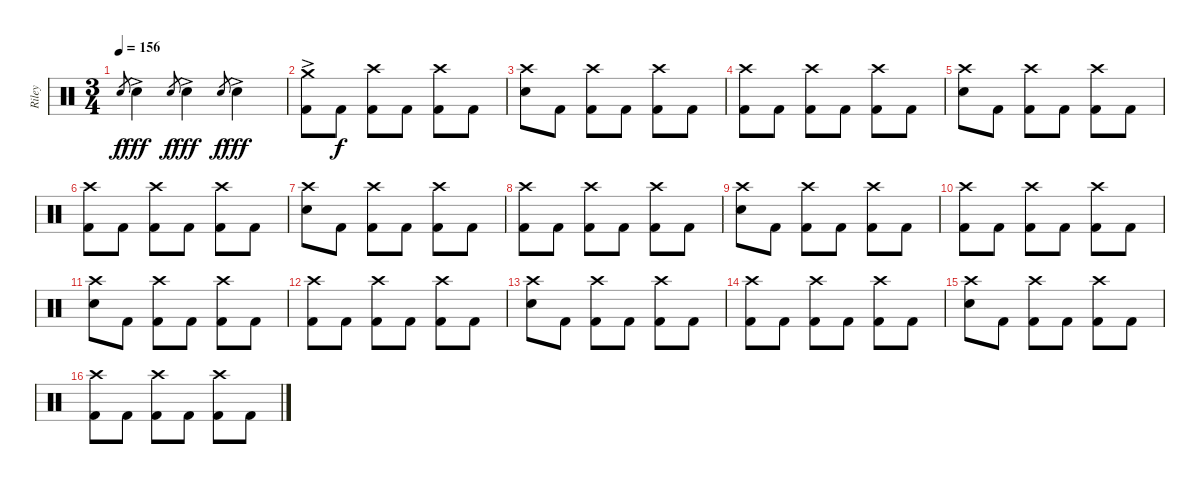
\track ("Riley" "Riley") {instrument percussion}
\staff {score}
\articulation defaults
\ts (3 4)
\tempo 156
\clef neutral
\ks c "Electric Snare (hit)".8{gr dy f} "Electric Snare (hit)"{ac}.4{dy fff} "Electric Snare (hit)".8{gr dy f} "Electric Snare (hit)"{ac}.4{dy fff} "Electric Snare (hit)".8{gr dy f} "Electric Snare (hit)"{ac}.4{dy fff}
|
("Crash medium (hit)"{ac} "Kick (hit) 2").8 "Kick (hit) 2".8{dy f} ("Crash high (hit)" "Kick (hit) 2").8 "Kick (hit) 2".8 ("Crash high (hit)" "Kick (hit) 2").8 "Kick (hit) 2".8 |
("Crash high (hit)" "Electric Snare (hit)").8 "Kick (hit) 2".8 ("Crash high (hit)" "Kick (hit) 2").8 "Kick (hit) 2".8 ("Crash high (hit)" "Kick (hit) 2").8 "Kick (hit) 2".8 |
("Crash high (hit)" "Kick (hit) 2").8 "Kick (hit) 2".8 ("Crash high (hit)" "Kick (hit) 2").8 "Kick (hit) 2".8 ("Crash high (hit)" "Kick (hit) 2").8 "Kick (hit) 2".8 |
("Crash high (hit)" "Electric Snare (hit)").8 "Kick (hit) 2".8 ("Crash high (hit)" "Kick (hit) 2").8 "Kick (hit) 2".8 ("Crash high (hit)" "Kick (hit) 2").8 "Kick (hit) 2".8 |
("Crash high (hit)" "Kick (hit) 2").8 "Kick (hit) 2".8 ("Crash high (hit)" "Kick (hit) 2").8 "Kick (hit) 2".8 ("Crash high (hit)" "Kick (hit) 2").8 "Kick (hit) 2".8 |
("Crash high (hit)" "Electric Snare (hit)").8 "Kick (hit) 2".8 ("Crash high (hit)" "Kick (hit) 2").8 "Kick (hit) 2".8 ("Crash high (hit)" "Kick (hit) 2").8 "Kick (hit) 2".8 |
("Crash high (hit)" "Kick (hit) 2").8 "Kick (hit) 2".8 ("Crash high (hit)" "Kick (hit) 2").8 "Kick (hit) 2".8 ("Crash high (hit)" "Kick (hit) 2").8 "Kick (hit) 2".8 |
("Crash high (hit)" "Electric Snare (hit)").8 "Kick (hit) 2".8 ("Crash high (hit)" "Kick (hit) 2").8 "Kick (hit) 2".8 ("Crash high (hit)" "Kick (hit) 2").8 "Kick (hit) 2".8 |
("Crash high (hit)" "Kick (hit) 2").8 "Kick (hit) 2".8 ("Crash high (hit)" "Kick (hit) 2").8 "Kick (hit) 2".8 ("Crash high (hit)" "Kick (hit) 2").8 "Kick (hit) 2".8 |
("Crash high (hit)" "Electric Snare (hit)").8 "Kick (hit) 2".8 ("Crash high (hit)" "Kick (hit) 2").8 "Kick (hit) 2".8 ("Crash high (hit)" "Kick (hit) 2").8 "Kick (hit) 2".8 |
("Crash high (hit)" "Kick (hit) 2").8 "Kick (hit) 2".8 ("Crash high (hit)" "Kick (hit) 2").8 "Kick (hit) 2".8 ("Crash high (hit)" "Kick (hit) 2").8 "Kick (hit) 2".8 |
("Crash high (hit)" "Electric Snare (hit)").8 "Kick (hit) 2".8 ("Crash high (hit)" "Kick (hit) 2").8 "Kick (hit) 2".8 ("Crash high (hit)" "Kick (hit) 2").8 "Kick (hit) 2".8 |
("Crash high (hit)" "Kick (hit) 2").8 "Kick (hit) 2".8 ("Crash high (hit)" "Kick (hit) 2").8 "Kick (hit) 2".8 ("Crash high (hit)" "Kick (hit) 2").8 "Kick (hit) 2".8 |
("Crash high (hit)" "Electric Snare (hit)").8 "Kick (hit) 2".8 ("Crash high (hit)" "Kick (hit) 2").8 "Kick (hit) 2".8 ("Crash high (hit)" "Kick (hit) 2").8 "Kick (hit) 2".8 |
("Crash high (hit)" "Kick (hit) 2").8 "Kick (hit) 2".8 ("Crash high (hit)" "Kick (hit) 2").8 "Kick (hit) 2".8 ("Crash high (hit)" "Kick (hit) 2").8 "Kick (hit) 2".8
